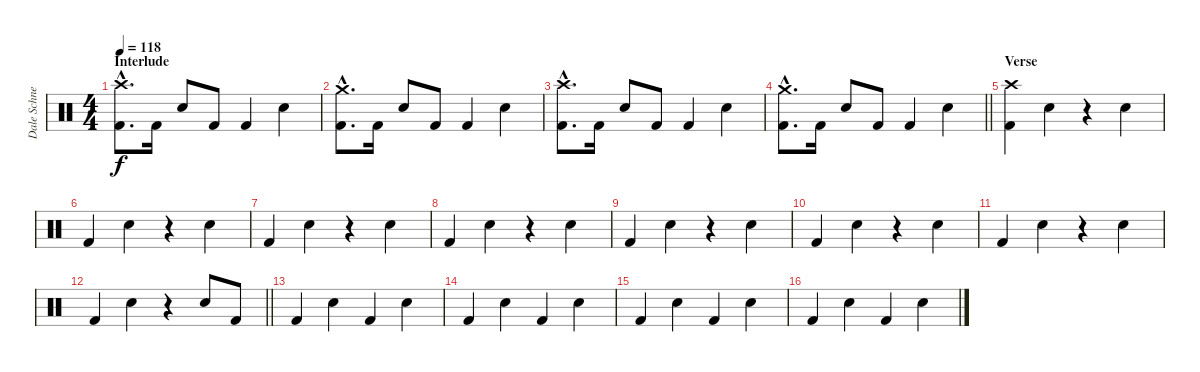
\track ("Dale Schnettler (Drums)" "Dale Schne") {instrument percussion}
\staff {score}
\articulation defaults
\ts (4 4)
\section ("" "Interlude")
\tempo 118
\clef neutral
\ks c
("Crash high (hit)"{hac} "Kick (hit) 2"{hac}).8{d dy f} "Kick (hit) 2".16 "Electric Snare (hit)".8 "Kick (hit) 2".8 "Kick (hit) 2".4 "Electric Snare (hit)".4 |
("Crash medium (hit)"{hac} "Kick (hit) 2"{hac}).8{d} "Kick (hit) 2".16 "Electric Snare (hit)".8 "Kick (hit) 2".8 "Kick (hit) 2".4 "Electric Snare (hit)".4 |
("Crash high (hit)"{hac} "Kick (hit) 2"{hac}).8{d} "Kick (hit) 2".16 "Electric Snare (hit)".8 "Kick (hit) 2".8 "Kick (hit) 2".4 "Electric Snare (hit)".4 |
\barLineRight lightlight
("Crash medium (hit)"{hac} "Kick (hit) 2"{hac}).8{d} "Kick (hit) 2".16 "Electric Snare (hit)".8 "Kick (hit) 2".8 "Kick (hit) 2".4 "Electric Snare (hit)".4 |
\section ("" "Verse")
("Crash high (hit)" "Kick (hit) 2").4 "Electric Snare (hit)".4 r.4 "Electric Snare (hit)".4 |
"Kick (hit) 2".4 "Electric Snare (hit)".4 r.4 "Electric Snare (hit)".4 |
"Kick (hit) 2".4 "Electric Snare (hit)".4 r.4 "Electric Snare (hit)".4 |
"Kick (hit) 2".4 "Electric Snare (hit)".4 r.4 "Electric Snare (hit)".4 |
"Kick (hit) 2".4 "Electric Snare (hit)".4 r.4 "Electric Snare (hit)".4 |
"Kick (hit) 2".4 "Electric Snare (hit)".4 r.4 "Electric Snare (hit)".4 |
"Kick (hit) 2".4 "Electric Snare (hit)".4 r.4 "Electric Snare (hit)".4 |
\barLineRight lightlight "Kick (hit) 2".4 "Electric Snare (hit)".4
r.4 "Electric Snare (hit)".8 "Kick (hit) 2".8 |
"Kick (hit) 2".4 "Electric Snare (hit)".4 "Kick (hit) 2".4 "Electric Snare (hit)".4 |
"Kick (hit) 2".4 "Electric Snare (hit)".4 "Kick (hit) 2".4 "Electric Snare (hit)".4 |
"Kick (hit) 2".4 "Electric Snare (hit)".4 "Kick (hit) 2".4 "Electric Snare (hit)".4 |
"Kick (hit) 2".4 "Electric Snare (hit)".4 "Kick (hit) 2".4 "Electric Snare (hit)".4
